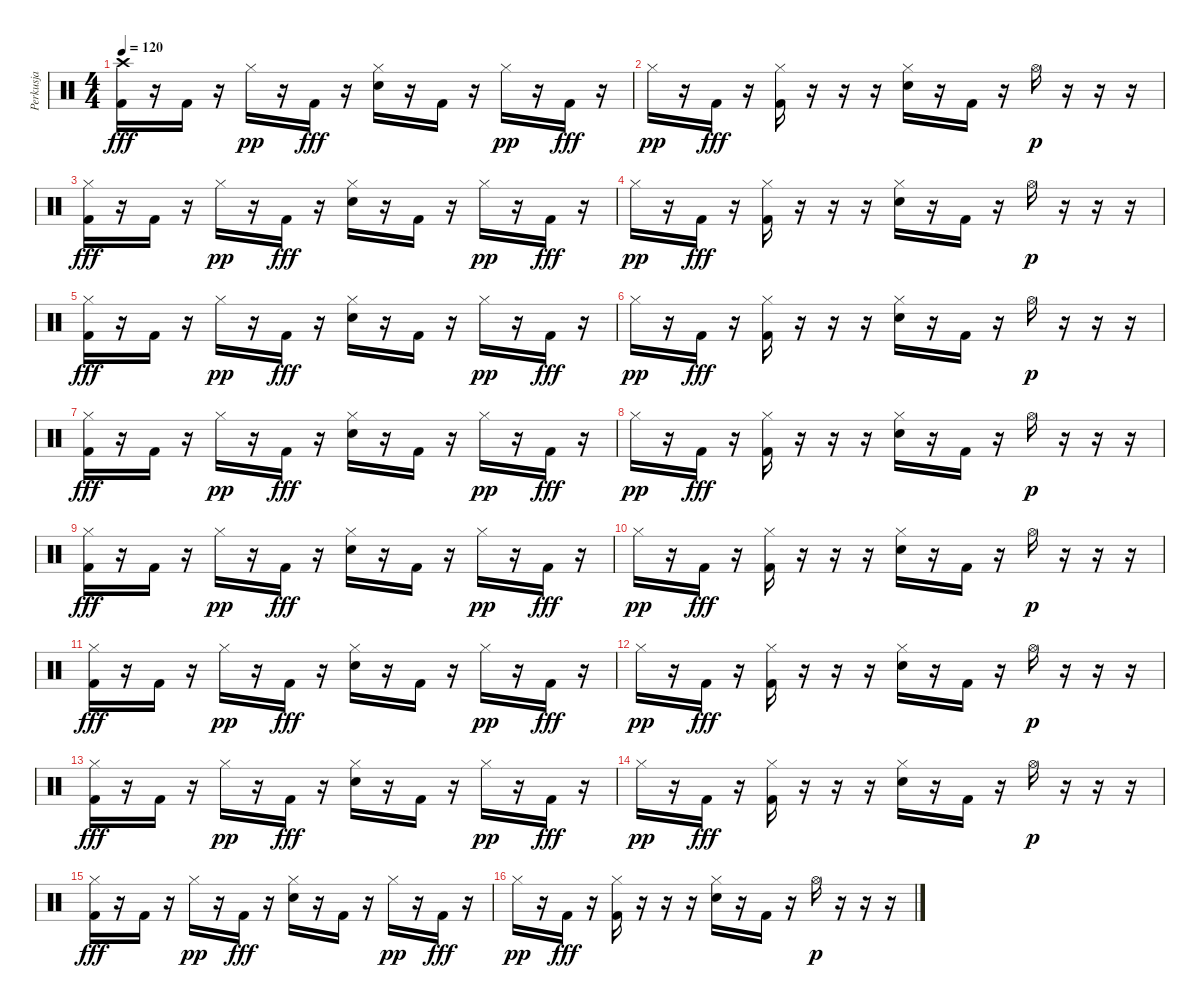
\track ("Perkusja" "Perkusja") {instrument percussion}
\staff {score}
\articulation defaults
\ts (4 4)
\tempo 120
\clef neutral
\ks c
("Crash high (hit)" "Kick (hit) 2").16{dy fff} r.16 "Kick (hit) 2".16 r.16 "Hi-Hat (closed)".16{dy pp} r.16 "Kick (hit) 2".16{dy fff} r.16 ("Hi-Hat (closed)" "Electric Snare (hit)").16 r.16 "Kick (hit) 2".16 r.16 "Hi-Hat (closed)".16{dy pp} r.16 "Kick (hit) 2".16{dy fff} r.16 |
"Hi-Hat (closed)".16{dy pp} r.16 "Kick (hit) 2".16{dy fff} r.16 ("Hi-Hat (closed)" "Kick (hit) 2").16 r.16 r.16 r.16 ("Hi-Hat (closed)" "Electric Snare (hit)").16 r.16 "Kick (hit) 2".16 r.16 "Hi-Hat (open)".16{dy p} r.16 r.16 r.16 |
("Hi-Hat (closed)" "Kick (hit) 2").16{dy fff} r.16 "Kick (hit) 2".16 r.16 "Hi-Hat (closed)".16{dy pp} r.16 "Kick (hit) 2".16{dy fff} r.16 ("Hi-Hat (closed)" "Electric Snare (hit)").16 r.16 "Kick (hit) 2".16 r.16 "Hi-Hat (closed)".16{dy pp} r.16 "Kick (hit) 2".16{dy fff} r.16 |
"Hi-Hat (closed)".16{dy pp} r.16 "Kick (hit) 2".16{dy fff} r.16 ("Hi-Hat (closed)" "Kick (hit) 2").16 r.16 r.16 r.16 ("Hi-Hat (closed)" "Electric Snare (hit)").16 r.16 "Kick (hit) 2".16 r.16 "Hi-Hat (open)".16{dy p} r.16 r.16 r.16 |
("Hi-Hat (closed)" "Kick (hit) 2").16{dy fff} r.16 "Kick (hit) 2".16 r.16 "Hi-Hat (closed)".16{dy pp} r.16 "Kick (hit) 2".16{dy fff} r.16 ("Hi-Hat (closed)" "Electric Snare (hit)").16 r.16 "Kick (hit) 2".16 r.16 "Hi-Hat (closed)".16{dy pp} r.16 "Kick (hit) 2".16{dy fff} r.16 |
"Hi-Hat (closed)".16{dy pp} r.16 "Kick (hit) 2".16{dy fff} r.16 ("Hi-Hat (closed)" "Kick (hit) 2").16 r.16 r.16 r.16 ("Hi-Hat (closed)" "Electric Snare (hit)").16 r.16 "Kick (hit) 2".16 r.16 "Hi-Hat (open)".16{dy p} r.16 r.16 r.16 |
("Hi-Hat (closed)" "Kick (hit) 2").16{dy fff} r.16 "Kick (hit) 2".16 r.16 "Hi-Hat (closed)".16{dy pp} r.16 "Kick (hit) 2".16{dy fff} r.16 ("Hi-Hat (closed)" "Electric Snare (hit)").16 r.16 "Kick (hit) 2".16 r.16 "Hi-Hat (closed)".16{dy pp} r.16 "Kick (hit) 2".16{dy fff} r.16 |
"Hi-Hat (closed)".16{dy pp} r.16 "Kick (hit) 2".16{dy fff} r.16 ("Hi-Hat (closed)" "Kick (hit) 2").16 r.16 r.16 r.16 ("Hi-Hat (closed)" "Electric Snare (hit)").16 r.16 "Kick (hit) 2".16 r.16 "Hi-Hat (open)".16{dy p} r.16 r.16 r.16 |
("Hi-Hat (closed)" "Kick (hit) 2").16{dy fff} r.16 "Kick (hit) 2".16 r.16 "Hi-Hat (closed)".16{dy pp} r.16 "Kick (hit) 2".16{dy fff} r.16 ("Hi-Hat (closed)" "Electric Snare (hit)").16 r.16 "Kick (hit) 2".16 r.16 "Hi-Hat (closed)".16{dy pp} r.16 "Kick (hit) 2".16{dy fff} r.16 |
"Hi-Hat (closed)".16{dy pp} r.16 "Kick (hit) 2".16{dy fff} r.16 ("Hi-Hat (closed)" "Kick (hit) 2").16 r.16 r.16 r.16 ("Hi-Hat (closed)" "Electric Snare (hit)").16 r.16 "Kick (hit) 2".16 r.16 "Hi-Hat (open)".16{dy p} r.16 r.16 r.16 |
("Hi-Hat (closed)" "Kick (hit) 2").16{dy fff} r.16 "Kick (hit) 2".16 r.16 "Hi-Hat (closed)".16{dy pp} r.16 "Kick (hit) 2".16{dy fff} r.16 ("Hi-Hat (closed)" "Electric Snare (hit)").16 r.16 "Kick (hit) 2".16 r.16 "Hi-Hat (closed)".16{dy pp} r.16 "Kick (hit) 2".16{dy fff} r.16 |
"Hi-Hat (closed)".16{dy pp} r.16 "Kick (hit) 2".16{dy fff} r.16 ("Hi-Hat (closed)" "Kick (hit) 2").16 r.16 r.16 r.16 ("Hi-Hat (closed)" "Electric Snare (hit)").16 r.16 "Kick (hit) 2".16 r.16 "Hi-Hat (open)".16{dy p} r.16 r.16 r.16 |
("Hi-Hat (closed)" "Kick (hit) 2").16{dy fff} r.16 "Kick (hit) 2".16 r.16 "Hi-Hat (closed)".16{dy pp} r.16 "Kick (hit) 2".16{dy fff} r.16 ("Hi-Hat (closed)" "Electric Snare (hit)").16 r.16 "Kick (hit) 2".16 r.16 "Hi-Hat (closed)".16{dy pp} r.16 "Kick (hit) 2".16{dy fff} r.16 |
"Hi-Hat (closed)".16{dy pp} r.16 "Kick (hit) 2".16{dy fff} r.16 ("Hi-Hat (closed)" "Kick (hit) 2").16 r.16 r.16 r.16 ("Hi-Hat (closed)" "Electric Snare (hit)").16 r.16 "Kick (hit) 2".16 r.16 "Hi-Hat (open)".16{dy p} r.16 r.16 r.16 |
("Hi-Hat (closed)" "Kick (hit) 2").16{dy fff} r.16 "Kick (hit) 2".16 r.16 "Hi-Hat (closed)".16{dy pp} r.16 "Kick (hit) 2".16{dy fff} r.16 ("Hi-Hat (closed)" "Electric Snare (hit)").16 r.16 "Kick (hit) 2".16 r.16 "Hi-Hat (closed)".16{dy pp} r.16 "Kick (hit) 2".16{dy fff} r.16 |
"Hi-Hat (closed)".16{dy pp} r.16 "Kick (hit) 2".16{dy fff} r.16 ("Hi-Hat (closed)" "Kick (hit) 2").16 r.16 r.16 r.16 ("Hi-Hat (closed)" "Electric Snare (hit)").16 r.16 "Kick (hit) 2".16 r.16 "Hi-Hat (open)".16{dy p} r.16 r.16 r.16
